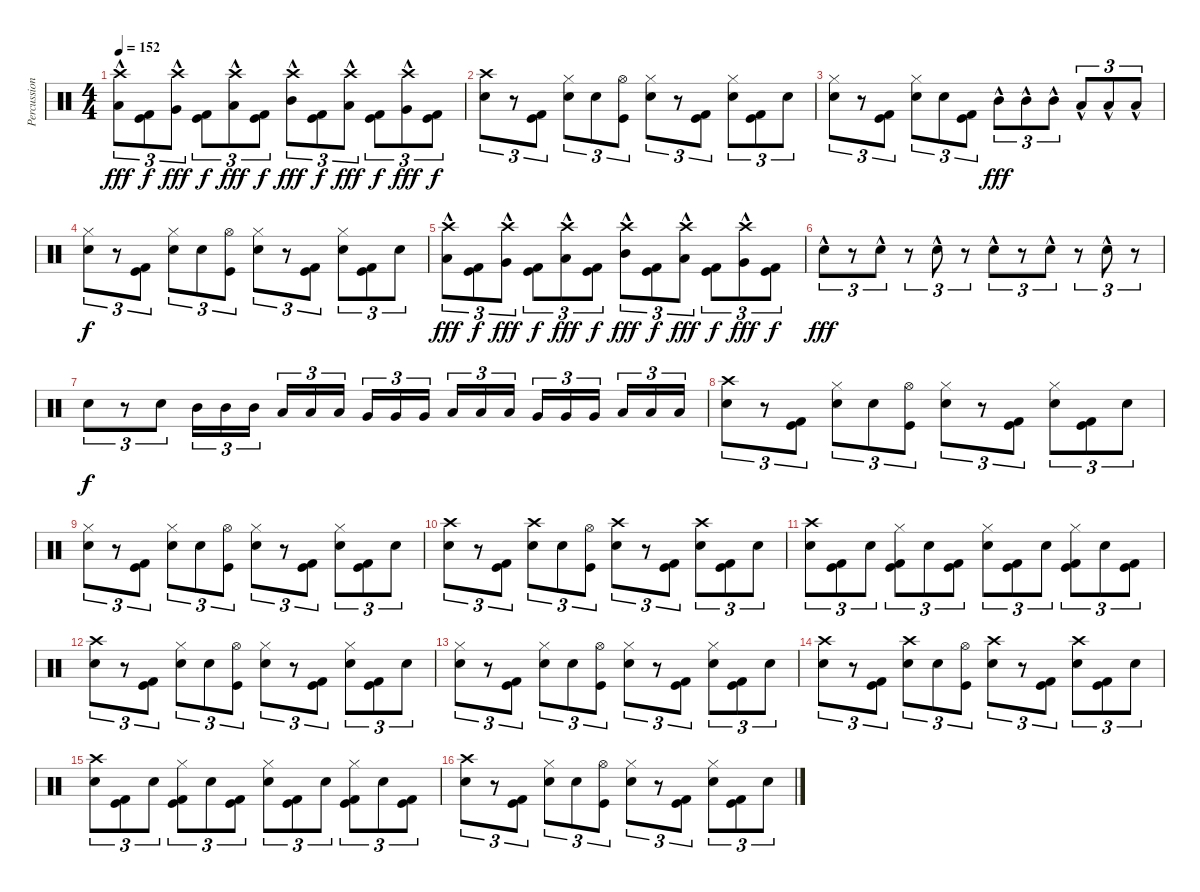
\track ("Percussion" "Percussion") {instrument percussion}
\staff {score}
\articulation defaults
\ts (4 4)
\tempo 152
\clef neutral
\ks c
("Crash high (hit)" "Low Floor Tom (hit)"{hac}).8{tu (3 2) dy fff} ("Kick (hit) 2" "Kick (hit)").8{tu (3 2) dy f} ("Crash high (hit)" "Very Low Tom (hit)"{hac}).8{tu (3 2) dy fff} ("Kick (hit) 2" "Kick (hit)").8{tu (3 2) dy f} ("Crash high (hit)" "Low Tom (hit)"{hac}).8{tu (3 2) dy fff} ("Kick (hit) 2" "Kick (hit)").8{tu (3 2) dy f} ("Crash high (hit)" "Mid Tom (hit)"{hac}).8{tu (3 2) dy fff} ("Kick (hit) 2" "Kick (hit)").8{tu (3 2) dy f} ("Crash high (hit)" "Low Tom (hit)"{hac}).8{tu (3 2) dy fff} ("Kick (hit) 2" "Kick (hit)").8{tu (3 2) dy f} ("Crash high (hit)" "Very Low Tom (hit)"{hac}).8{tu (3 2) dy fff} ("Kick (hit) 2" "Kick (hit)").8{tu (3 2) dy f} |
("Crash high (hit)" "Electric Snare (hit)").8{tu (3 2)} r.8{tu (3 2)} ("Kick (hit) 2" "Kick (hit)").8{tu (3 2)} ("Hi-Hat (closed)" "Electric Snare (hit)").8{tu (3 2)} "Electric Snare (hit)".8{tu (3 2)} ("Hi-Hat (open)" "Kick (hit)").8{tu (3 2)} ("Hi-Hat (closed)" "Electric Snare (hit)").8{tu (3 2)} r.8{tu (3 2)} ("Kick (hit) 2" "Kick (hit)").8{tu (3 2)} ("Hi-Hat (closed)" "Electric Snare (hit)").8{tu (3 2)} ("Kick (hit) 2" "Kick (hit)").8{tu (3 2)} "Electric Snare (hit)".8{tu (3 2)} |
("Hi-Hat (closed)" "Electric Snare (hit)").8{tu (3 2)} r.8{tu (3 2)} ("Kick (hit) 2" "Kick (hit)").8{tu (3 2)} ("Hi-Hat (closed)" "Electric Snare (hit)").8{tu (3 2)} "Electric Snare (hit)".8{tu (3 2)} ("Kick (hit) 2" "Kick (hit)").8{tu (3 2)} "Mid Tom (hit)"{hac}.8{tu (3 2) dy fff} "Mid Tom (hit)"{hac}.8{tu (3 2)} "Mid Tom (hit)"{hac}.8{tu (3 2)} "Low Tom (hit)"{hac}.8{tu (3 2)} "Low Tom (hit)"{hac}.8{tu (3 2)} "Low Tom (hit)"{hac}.8{tu (3 2)} |
("Hi-Hat (closed)" "Electric Snare (hit)").8{tu (3 2) dy f} r.8{tu (3 2)} ("Kick (hit) 2" "Kick (hit)").8{tu (3 2)} ("Hi-Hat (closed)" "Electric Snare (hit)").8{tu (3 2)} "Electric Snare (hit)".8{tu (3 2)} ("Hi-Hat (open)" "Kick (hit)").8{tu (3 2)} ("Hi-Hat (closed)" "Electric Snare (hit)").8{tu (3 2)} r.8{tu (3 2)} ("Kick (hit) 2" "Kick (hit)").8{tu (3 2)} ("Hi-Hat (closed)" "Electric Snare (hit)").8{tu (3 2)} ("Kick (hit) 2" "Kick (hit)").8{tu (3 2)} "Electric Snare (hit)".8{tu (3 2)} |
("Crash high (hit)" "Low Floor Tom (hit)"{hac}).8{tu (3 2) dy fff} ("Kick (hit) 2" "Kick (hit)").8{tu (3 2) dy f} ("Crash high (hit)" "Very Low Tom (hit)"{hac}).8{tu (3 2) dy fff} ("Kick (hit) 2" "Kick (hit)").8{tu (3 2) dy f} ("Crash high (hit)" "Low Tom (hit)"{hac}).8{tu (3 2) dy fff} ("Kick (hit) 2" "Kick (hit)").8{tu (3 2) dy f} ("Crash high (hit)" "Mid Tom (hit)"{hac}).8{tu (3 2) dy fff} ("Kick (hit) 2" "Kick (hit)").8{tu (3 2) dy f} ("Crash high (hit)" "Low Tom (hit)"{hac}).8{tu (3 2) dy fff} ("Kick (hit) 2" "Kick (hit)").8{tu (3 2) dy f} ("Crash high (hit)" "Very Low Tom (hit)"{hac}).8{tu (3 2) dy fff} ("Kick (hit) 2" "Kick (hit)").8{tu (3 2) dy f} |
"Electric Snare (hit)"{hac}.8{tu (3 2) dy fff} r.8{tu (3 2)} "Electric Snare (hit)"{hac}.8{tu (3 2)} r.8{tu (3 2)} "Electric Snare (hit)"{hac}.8{tu (3 2)} r.8{tu (3 2)} "Electric Snare (hit)"{hac}.8{tu (3 2)} r.8{tu (3 2)} "Electric Snare (hit)"{hac}.8{tu (3 2)} r.8{tu (3 2)} "Electric Snare (hit)"{hac}.8{tu (3 2)} r.8{tu (3 2)} |
"Electric Snare (hit)".8{tu (3 2) dy f} r.8{tu (3 2)} "Electric Snare (hit)".8{tu (3 2)} "Mid Tom (hit)".16{tu (3 2)} "Mid Tom (hit)".16{tu (3 2)} "Mid Tom (hit)".16{tu (3 2) beam splitsecondary} "Low Tom (hit)".16{tu (3 2)} "Low Tom (hit)".16{tu (3 2)} "Low Tom (hit)".16{tu (3 2)} "Very Low Tom (hit)".16{tu (3 2)} "Very Low Tom (hit)".16{tu (3 2)} "Very Low Tom (hit)".16{tu (3 2) beam splitsecondary} "Low Tom (hit)".16{tu (3 2)} "Low Tom (hit)".16{tu (3 2)} "Low Tom (hit)".16{tu (3 2)} "Very Low Tom (hit)".16{tu (3 2)} "Very Low Tom (hit)".16{tu (3 2)} "Very Low Tom (hit)".16{tu (3 2) beam splitsecondary} "Low Floor Tom (hit)".16{tu (3 2)} "Low Floor Tom (hit)".16{tu (3 2)} "Low Floor Tom (hit)".16{tu (3 2)} |
("Crash high (hit)" "Electric Snare (hit)").8{tu (3 2)} r.8{tu (3 2)} ("Kick (hit) 2" "Kick (hit)").8{tu (3 2)} ("Hi-Hat (closed)" "Electric Snare (hit)").8{tu (3 2)} "Electric Snare (hit)".8{tu (3 2)} ("Hi-Hat (open)" "Kick (hit)").8{tu (3 2)} ("Hi-Hat (closed)" "Electric Snare (hit)").8{tu (3 2)} r.8{tu (3 2)} ("Kick (hit) 2" "Kick (hit)").8{tu (3 2)} ("Hi-Hat (closed)" "Electric Snare (hit)").8{tu (3 2)} ("Kick (hit) 2" "Kick (hit)").8{tu (3 2)} "Electric Snare (hit)".8{tu (3 2)} |
("Hi-Hat (closed)" "Electric Snare (hit)").8{tu (3 2)} r.8{tu (3 2)} ("Kick (hit) 2" "Kick (hit)").8{tu (3 2)} ("Hi-Hat (closed)" "Electric Snare (hit)").8{tu (3 2)} "Electric Snare (hit)".8{tu (3 2)} ("Hi-Hat (open)" "Kick (hit)").8{tu (3 2)} ("Hi-Hat (closed)" "Electric Snare (hit)").8{tu (3 2)} r.8{tu (3 2)} ("Kick (hit) 2" "Kick (hit)").8{tu (3 2)} ("Hi-Hat (closed)" "Electric Snare (hit)").8{tu (3 2)} ("Kick (hit) 2" "Kick (hit)").8{tu (3 2)} "Electric Snare (hit)".8{tu (3 2)} |
("Crash high (hit)" "Electric Snare (hit)").8{tu (3 2)} r.8{tu (3 2)} ("Kick (hit) 2" "Kick (hit)").8{tu (3 2)} ("Crash high (hit)" "Electric Snare (hit)").8{tu (3 2)} "Electric Snare (hit)".8{tu (3 2)} ("Hi-Hat (open)" "Kick (hit)").8{tu (3 2)} ("Crash high (hit)" "Electric Snare (hit)").8{tu (3 2)} r.8{tu (3 2)} ("Kick (hit) 2" "Kick (hit)").8{tu (3 2)} ("Crash high (hit)" "Electric Snare (hit)").8{tu (3 2)} ("Kick (hit) 2" "Kick (hit)").8{tu (3 2)} "Electric Snare (hit)".8{tu (3 2)} |
("Crash high (hit)" "Electric Snare (hit)").8{tu (3 2)} ("Kick (hit) 2" "Kick (hit)").8{tu (3 2)} "Electric Snare (hit)".8{tu (3 2)} ("Hi-Hat (closed)" "Kick (hit) 2" "Kick (hit)").8{tu (3 2)} "Electric Snare (hit)".8{tu (3 2)} ("Kick (hit) 2" "Kick (hit)").8{tu (3 2)} ("Hi-Hat (closed)" "Electric Snare (hit)").8{tu (3 2)} ("Kick (hit) 2" "Kick (hit)").8{tu (3 2)} "Electric Snare (hit)".8{tu (3 2)} ("Hi-Hat (closed)" "Kick (hit) 2" "Kick (hit)").8{tu (3 2)} "Electric Snare (hit)".8{tu (3 2)} ("Kick (hit) 2" "Kick (hit)").8{tu (3 2)} |
("Crash high (hit)" "Electric Snare (hit)").8{tu (3 2)} r.8{tu (3 2)} ("Kick (hit) 2" "Kick (hit)").8{tu (3 2)} ("Hi-Hat (closed)" "Electric Snare (hit)").8{tu (3 2)} "Electric Snare (hit)".8{tu (3 2)} ("Hi-Hat (open)" "Kick (hit)").8{tu (3 2)} ("Hi-Hat (closed)" "Electric Snare (hit)").8{tu (3 2)} r.8{tu (3 2)} ("Kick (hit) 2" "Kick (hit)").8{tu (3 2)} ("Hi-Hat (closed)" "Electric Snare (hit)").8{tu (3 2)} ("Kick (hit) 2" "Kick (hit)").8{tu (3 2)} "Electric Snare (hit)".8{tu (3 2)} |
("Hi-Hat (closed)" "Electric Snare (hit)").8{tu (3 2)} r.8{tu (3 2)} ("Kick (hit) 2" "Kick (hit)").8{tu (3 2)} ("Hi-Hat (closed)" "Electric Snare (hit)").8{tu (3 2)} "Electric Snare (hit)".8{tu (3 2)} ("Hi-Hat (open)" "Kick (hit)").8{tu (3 2)} ("Hi-Hat (closed)" "Electric Snare (hit)").8{tu (3 2)} r.8{tu (3 2)} ("Kick (hit) 2" "Kick (hit)").8{tu (3 2)} ("Hi-Hat (closed)" "Electric Snare (hit)").8{tu (3 2)} ("Kick (hit) 2" "Kick (hit)").8{tu (3 2)} "Electric Snare (hit)".8{tu (3 2)} |
("Crash high (hit)" "Electric Snare (hit)").8{tu (3 2)} r.8{tu (3 2)} ("Kick (hit) 2" "Kick (hit)").8{tu (3 2)} ("Crash high (hit)" "Electric Snare (hit)").8{tu (3 2)} "Electric Snare (hit)".8{tu (3 2)} ("Hi-Hat (open)" "Kick (hit)").8{tu (3 2)} ("Crash high (hit)" "Electric Snare (hit)").8{tu (3 2)} r.8{tu (3 2)} ("Kick (hit) 2" "Kick (hit)").8{tu (3 2)} ("Crash high (hit)" "Electric Snare (hit)").8{tu (3 2)} ("Kick (hit) 2" "Kick (hit)").8{tu (3 2)} "Electric Snare (hit)".8{tu (3 2)} |
("Crash high (hit)" "Electric Snare (hit)").8{tu (3 2)} ("Kick (hit) 2" "Kick (hit)").8{tu (3 2)} "Electric Snare (hit)".8{tu (3 2)} ("Hi-Hat (closed)" "Kick (hit) 2" "Kick (hit)").8{tu (3 2)} "Electric Snare (hit)".8{tu (3 2)} ("Kick (hit) 2" "Kick (hit)").8{tu (3 2)} ("Hi-Hat (closed)" "Electric Snare (hit)").8{tu (3 2)} ("Kick (hit) 2" "Kick (hit)").8{tu (3 2)} "Electric Snare (hit)".8{tu (3 2)} ("Hi-Hat (closed)" "Kick (hit) 2" "Kick (hit)").8{tu (3 2)} "Electric Snare (hit)".8{tu (3 2)} ("Kick (hit) 2" "Kick (hit)").8{tu (3 2)} |
("Crash high (hit)" "Electric Snare (hit)").8{tu (3 2)} r.8{tu (3 2)} ("Kick (hit) 2" "Kick (hit)").8{tu (3 2)} ("Hi-Hat (closed)" "Electric Snare (hit)").8{tu (3 2)} "Electric Snare (hit)".8{tu (3 2)} ("Hi-Hat (open)" "Kick (hit)").8{tu (3 2)} ("Hi-Hat (closed)" "Electric Snare (hit)").8{tu (3 2)} r.8{tu (3 2)} ("Kick (hit) 2" "Kick (hit)").8{tu (3 2)} ("Hi-Hat (closed)" "Electric Snare (hit)").8{tu (3 2)} ("Kick (hit) 2" "Kick (hit)").8{tu (3 2)} "Electric Snare (hit)".8{tu (3 2)}
